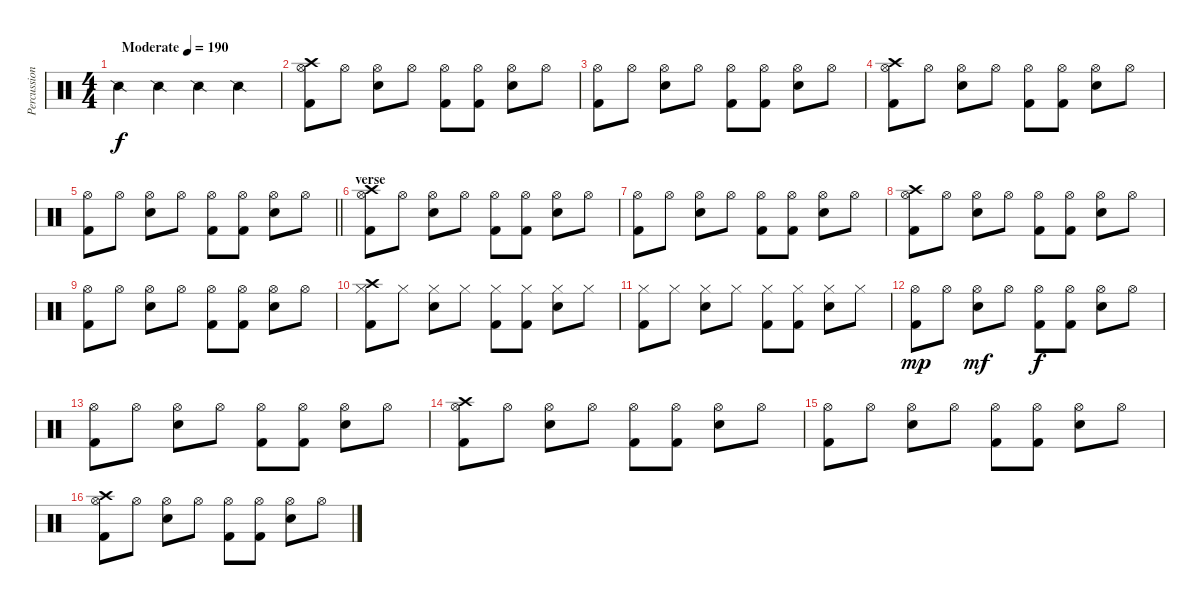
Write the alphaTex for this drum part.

\track ("Percussion" "Percussion") {instrument percussion}
\staff {score}
\articulation defaults
\ts (4 4)
\tempo (190 "Moderate")
\clef neutral
\ks c "Snare (side stick) 2".4{dy f} "Snare (side stick) 2".4 "Snare (side stick) 2".4 "Snare (side stick) 2".4
|
("Crash high (hit)" "Hi-Hat (open)" "Kick (hit) 2").8 "Hi-Hat (open)".8 ("Hi-Hat (open)" "Snare (hit) 2").8 "Hi-Hat (open)".8 ("Hi-Hat (open)" "Kick (hit) 2").8 ("Hi-Hat (open)" "Kick (hit) 2").8 ("Hi-Hat (open)" "Snare (hit) 2").8 "Hi-Hat (open)".8 |
("Hi-Hat (open)" "Kick (hit) 2").8 "Hi-Hat (open)".8 ("Hi-Hat (open)" "Snare (hit) 2").8 "Hi-Hat (open)".8 ("Hi-Hat (open)" "Kick (hit) 2").8 ("Hi-Hat (open)" "Kick (hit) 2").8 ("Hi-Hat (open)" "Snare (hit) 2").8 "Hi-Hat (open)".8 |
("Crash high (hit)" "Hi-Hat (open)" "Kick (hit) 2").8 "Hi-Hat (open)".8 ("Hi-Hat (open)" "Snare (hit) 2").8 "Hi-Hat (open)".8 ("Hi-Hat (open)" "Kick (hit) 2").8 ("Hi-Hat (open)" "Kick (hit) 2").8 ("Hi-Hat (open)" "Snare (hit) 2").8 "Hi-Hat (open)".8 |
\barLineRight lightlight
("Hi-Hat (open)" "Kick (hit) 2").8 "Hi-Hat (open)".8 ("Hi-Hat (open)" "Snare (hit) 2").8 "Hi-Hat (open)".8 ("Hi-Hat (open)" "Kick (hit) 2").8 ("Hi-Hat (open)" "Kick (hit) 2").8 ("Hi-Hat (open)" "Snare (hit) 2").8 "Hi-Hat (open)".8 |
\section ("" "verse")
("Crash high (hit)" "Hi-Hat (open)" "Kick (hit) 2").8 "Hi-Hat (open)".8 ("Hi-Hat (open)" "Snare (hit) 2").8 "Hi-Hat (open)".8 ("Hi-Hat (open)" "Kick (hit) 2").8 ("Hi-Hat (open)" "Kick (hit) 2").8 ("Hi-Hat (open)" "Snare (hit) 2").8 "Hi-Hat (open)".8 |
("Hi-Hat (open)" "Kick (hit) 2").8 "Hi-Hat (open)".8 ("Hi-Hat (open)" "Snare (hit) 2").8 "Hi-Hat (open)".8 ("Hi-Hat (open)" "Kick (hit) 2").8 ("Hi-Hat (open)" "Kick (hit) 2").8 ("Hi-Hat (open)" "Snare (hit) 2").8 "Hi-Hat (open)".8 |
("Crash high (hit)" "Hi-Hat (open)" "Kick (hit) 2").8 "Hi-Hat (open)".8 ("Hi-Hat (open)" "Snare (hit) 2").8 "Hi-Hat (open)".8 ("Hi-Hat (open)" "Kick (hit) 2").8 ("Hi-Hat (open)" "Kick (hit) 2").8 ("Hi-Hat (open)" "Snare (hit) 2").8 "Hi-Hat (open)".8 |
("Hi-Hat (open)" "Kick (hit) 2").8 "Hi-Hat (open)".8 ("Hi-Hat (open)" "Snare (hit) 2").8 "Hi-Hat (open)".8 ("Hi-Hat (open)" "Kick (hit) 2").8 ("Hi-Hat (open)" "Kick (hit) 2").8 ("Hi-Hat (open)" "Snare (hit) 2").8 "Hi-Hat (open)".8 |
("Crash high (hit)" "Hi-Hat (closed)" "Kick (hit) 2").8 "Hi-Hat (closed)".8 ("Hi-Hat (closed)" "Snare (hit) 2").8 "Hi-Hat (closed)".8 ("Hi-Hat (closed)" "Kick (hit) 2").8 ("Hi-Hat (closed)" "Kick (hit) 2").8 ("Hi-Hat (closed)" "Snare (hit) 2").8 "Hi-Hat (closed)".8 |
("Hi-Hat (closed)" "Kick (hit) 2").8 "Hi-Hat (closed)".8 ("Hi-Hat (closed)" "Snare (hit) 2").8 "Hi-Hat (closed)".8 ("Hi-Hat (closed)" "Kick (hit) 2").8 ("Hi-Hat (closed)" "Kick (hit) 2").8 ("Hi-Hat (closed)" "Snare (hit) 2").8 "Hi-Hat (closed)".8 |
("Hi-Hat (open)" "Kick (hit) 2").8{dy mp} "Hi-Hat (open)".8 ("Hi-Hat (open)" "Snare (hit) 2").8{dy mf} "Hi-Hat (open)".8 ("Hi-Hat (open)" "Kick (hit) 2").8{dy f} ("Hi-Hat (open)" "Kick (hit) 2").8 ("Hi-Hat (open)" "Snare (hit) 2").8 "Hi-Hat (open)".8 |
("Hi-Hat (open)" "Kick (hit) 2").8 "Hi-Hat (open)".8 ("Hi-Hat (open)" "Snare (hit) 2").8 "Hi-Hat (open)".8 ("Hi-Hat (open)" "Kick (hit) 2").8 ("Hi-Hat (open)" "Kick (hit) 2").8 ("Hi-Hat (open)" "Snare (hit) 2").8 "Hi-Hat (open)".8 |
("Crash high (hit)" "Hi-Hat (open)" "Kick (hit) 2").8 "Hi-Hat (open)".8 ("Hi-Hat (open)" "Snare (hit) 2").8 "Hi-Hat (open)".8 ("Hi-Hat (open)" "Kick (hit) 2").8 ("Hi-Hat (open)" "Kick (hit) 2").8 ("Hi-Hat (open)" "Snare (hit) 2").8 "Hi-Hat (open)".8 |
("Hi-Hat (open)" "Kick (hit) 2").8 "Hi-Hat (open)".8 ("Hi-Hat (open)" "Snare (hit) 2").8 "Hi-Hat (open)".8 ("Hi-Hat (open)" "Kick (hit) 2").8 ("Hi-Hat (open)" "Kick (hit) 2").8 ("Hi-Hat (open)" "Snare (hit) 2").8 "Hi-Hat (open)".8 |
("Crash high (hit)" "Hi-Hat (open)" "Kick (hit) 2").8 "Hi-Hat (open)".8 ("Hi-Hat (open)" "Snare (hit) 2").8 "Hi-Hat (open)".8 ("Hi-Hat (open)" "Kick (hit) 2").8 ("Hi-Hat (open)" "Kick (hit) 2").8 ("Hi-Hat (open)" "Snare (hit) 2").8 "Hi-Hat (open)".8
